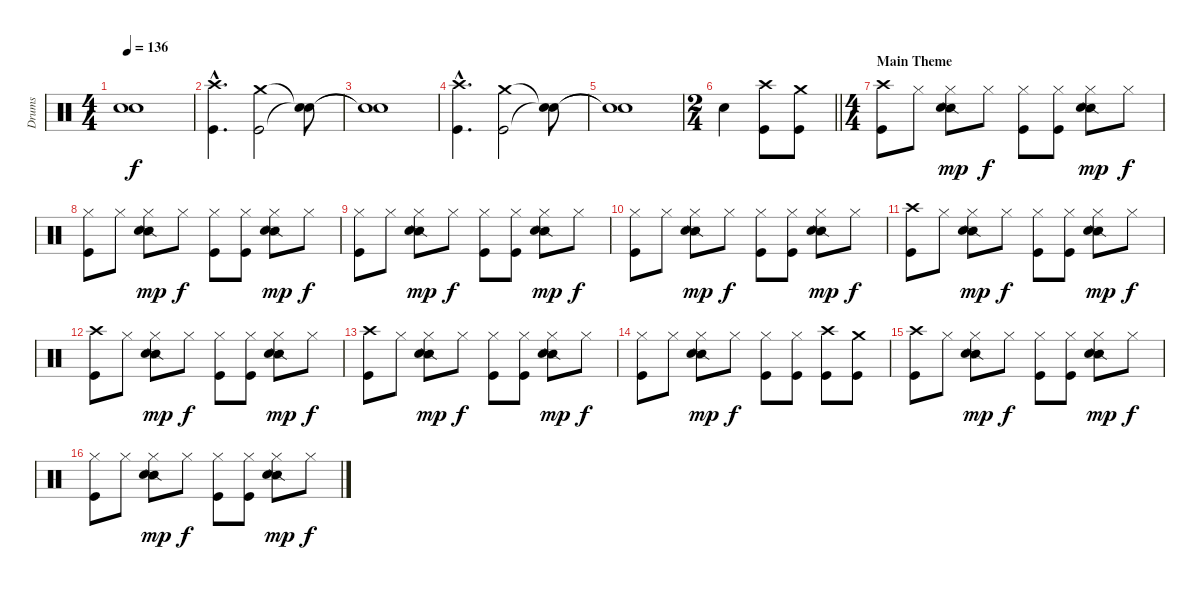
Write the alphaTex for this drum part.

\track ("Drums" "Drums") {instrument percussion}
\staff {score}
\articulation defaults
\ts (4 4)
\tempo 136
\clef neutral
\ks c
("Snare (hit)"{t} "Snare (hit)"{t}).1{dy f} |
("Crash high (hit)"{hac} "Kick (hit)"{hac}).4{d} ("Crash medium (hit)" "Kick (hit)").2 ("Snare (hit)"{t} "Snare (hit)"{t}).8 |
("Snare (hit)"{t} "Snare (hit)"{t}).1 |
("Crash high (hit)"{hac} "Kick (hit)"{hac}).4{d} ("Crash medium (hit)" "Kick (hit)").2 ("Snare (hit)"{t} "Snare (hit)"{t}).8 |
("Snare (hit)"{t} "Snare (hit)"{t}).1 |
\ts (2 4)
\barLineRight lightlight "Snare (hit) 2".4
("Crash high (hit)" "Kick (hit)").8 ("Crash medium (hit)" "Kick (hit)").8 |
\ts (4 4)
\section ("" "Main Theme")
("Crash high (hit)" "Kick (hit)").8 "Hi-Hat (closed)".8 ("Hi-Hat (closed)" "Snare (side stick) 2" "Snare (hit) 2").8{dy mp} "Hi-Hat (closed)".8{dy f} ("Hi-Hat (closed)" "Kick (hit)").8 ("Hi-Hat (closed)" "Kick (hit)").8 ("Hi-Hat (closed)" "Snare (side stick) 2" "Snare (hit) 2").8{dy mp} "Hi-Hat (closed)".8{dy f} |
("Hi-Hat (closed)" "Kick (hit)").8 "Hi-Hat (closed)".8 ("Hi-Hat (closed)" "Snare (side stick) 2" "Snare (hit) 2").8{dy mp} "Hi-Hat (closed)".8{dy f} ("Hi-Hat (closed)" "Kick (hit)").8 ("Hi-Hat (closed)" "Kick (hit)").8 ("Hi-Hat (closed)" "Snare (side stick) 2" "Snare (hit) 2").8{dy mp} "Hi-Hat (closed)".8{dy f} |
("Hi-Hat (closed)" "Kick (hit)").8 "Hi-Hat (closed)".8 ("Hi-Hat (closed)" "Snare (side stick) 2" "Snare (hit) 2").8{dy mp} "Hi-Hat (closed)".8{dy f} ("Hi-Hat (closed)" "Kick (hit)").8 ("Hi-Hat (closed)" "Kick (hit)").8 ("Hi-Hat (closed)" "Snare (side stick) 2" "Snare (hit) 2").8{dy mp} "Hi-Hat (closed)".8{dy f} |
("Hi-Hat (closed)" "Kick (hit)").8 "Hi-Hat (closed)".8 ("Hi-Hat (closed)" "Snare (side stick) 2" "Snare (hit) 2").8{dy mp} "Hi-Hat (closed)".8{dy f} ("Hi-Hat (closed)" "Kick (hit)").8 ("Hi-Hat (closed)" "Kick (hit)").8 ("Hi-Hat (closed)" "Snare (side stick) 2" "Snare (hit) 2").8{dy mp} "Hi-Hat (closed)".8{dy f} |
("Crash high (hit)" "Kick (hit)").8 "Hi-Hat (closed)".8 ("Hi-Hat (closed)" "Snare (side stick) 2" "Snare (hit) 2").8{dy mp} "Hi-Hat (closed)".8{dy f} ("Hi-Hat (closed)" "Kick (hit)").8 ("Hi-Hat (closed)" "Kick (hit)").8 ("Hi-Hat (closed)" "Snare (side stick) 2" "Snare (hit) 2").8{dy mp} "Hi-Hat (closed)".8{dy f} |
("Crash high (hit)" "Kick (hit)").8 "Hi-Hat (closed)".8 ("Hi-Hat (closed)" "Snare (side stick) 2" "Snare (hit) 2").8{dy mp} "Hi-Hat (closed)".8{dy f} ("Hi-Hat (closed)" "Kick (hit)").8 ("Hi-Hat (closed)" "Kick (hit)").8 ("Hi-Hat (closed)" "Snare (side stick) 2" "Snare (hit) 2").8{dy mp} "Hi-Hat (closed)".8{dy f} |
("Crash high (hit)" "Kick (hit)").8 "Hi-Hat (closed)".8 ("Hi-Hat (closed)" "Snare (side stick) 2" "Snare (hit) 2").8{dy mp} "Hi-Hat (closed)".8{dy f} ("Hi-Hat (closed)" "Kick (hit)").8 ("Hi-Hat (closed)" "Kick (hit)").8 ("Hi-Hat (closed)" "Snare (side stick) 2" "Snare (hit) 2").8{dy mp} "Hi-Hat (closed)".8{dy f} |
("Hi-Hat (closed)" "Kick (hit)").8 "Hi-Hat (closed)".8 ("Hi-Hat (closed)" "Snare (side stick) 2" "Snare (hit) 2").8{dy mp} "Hi-Hat (closed)".8{dy f} ("Hi-Hat (closed)" "Kick (hit)").8 ("Hi-Hat (closed)" "Kick (hit)").8 ("Crash high (hit)" "Kick (hit)").8 ("Crash medium (hit)" "Kick (hit)").8 |
("Crash high (hit)" "Kick (hit)").8 "Hi-Hat (closed)".8 ("Hi-Hat (closed)" "Snare (side stick) 2" "Snare (hit) 2").8{dy mp} "Hi-Hat (closed)".8{dy f} ("Hi-Hat (closed)" "Kick (hit)").8 ("Hi-Hat (closed)" "Kick (hit)").8 ("Hi-Hat (closed)" "Snare (side stick) 2" "Snare (hit) 2").8{dy mp} "Hi-Hat (closed)".8{dy f} |
("Hi-Hat (closed)" "Kick (hit)").8 "Hi-Hat (closed)".8 ("Hi-Hat (closed)" "Snare (side stick) 2" "Snare (hit) 2").8{dy mp} "Hi-Hat (closed)".8{dy f} ("Hi-Hat (closed)" "Kick (hit)").8 ("Hi-Hat (closed)" "Kick (hit)").8 ("Hi-Hat (closed)" "Snare (side stick) 2" "Snare (hit) 2").8{dy mp} "Hi-Hat (closed)".8{dy f}
